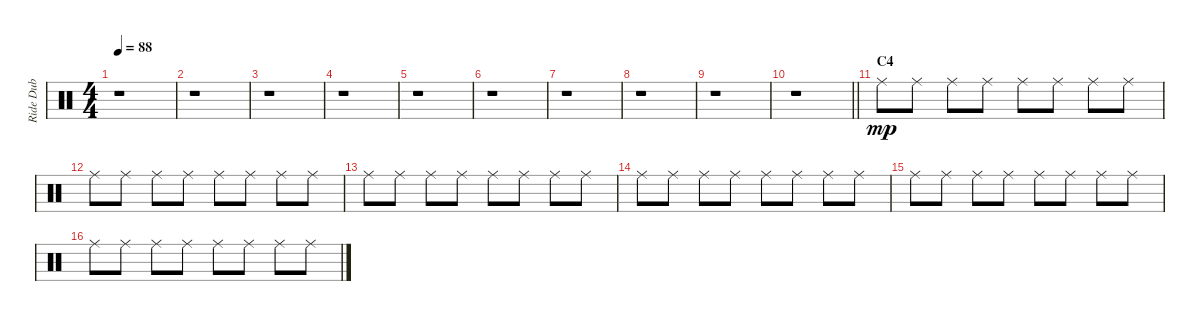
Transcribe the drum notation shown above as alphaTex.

\track ("Ride Dub" "Ride Dub") {instrument percussion}
\staff {score}
\articulation defaults
\ts (4 4)
\tempo 88
\clef neutral
\ks c
r.1{dy mp} |
r.1 |
r.1 |
r.1 |
r.1 |
r.1 |
r.1 |
r.1 |
r.1 |
\barLineRight lightlight
r.1 |
\section ("" "C4")
"Ride (middle)".8 "Ride (middle)".8 "Ride (middle)".8 "Ride (middle)".8 "Ride (middle)".8 "Ride (middle)".8 "Ride (middle)".8 "Ride (middle)".8 |
"Ride (middle)".8 "Ride (middle)".8 "Ride (middle)".8 "Ride (middle)".8 "Ride (middle)".8 "Ride (middle)".8 "Ride (middle)".8 "Ride (middle)".8 |
"Ride (middle)".8 "Ride (middle)".8 "Ride (middle)".8 "Ride (middle)".8 "Ride (middle)".8 "Ride (middle)".8 "Ride (middle)".8 "Ride (middle)".8 |
"Ride (middle)".8 "Ride (middle)".8 "Ride (middle)".8 "Ride (middle)".8 "Ride (middle)".8 "Ride (middle)".8 "Ride (middle)".8 "Ride (middle)".8 |
"Ride (middle)".8 "Ride (middle)".8 "Ride (middle)".8 "Ride (middle)".8 "Ride (middle)".8 "Ride (middle)".8 "Ride (middle)".8 "Ride (middle)".8 |
"Ride (middle)".8 "Ride (middle)".8 "Ride (middle)".8 "Ride (middle)".8 "Ride (middle)".8 "Ride (middle)".8 "Ride (middle)".8 "Ride (middle)".8
